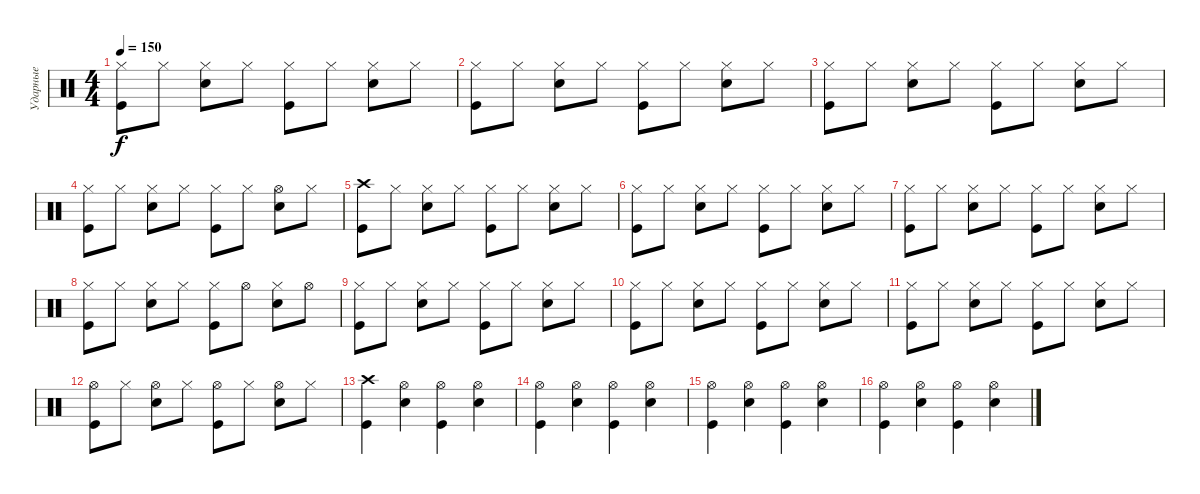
\track ("Ударные" "Ударные") {instrument percussion}
\staff {score}
\articulation defaults
\ts (4 4)
\tempo 150
\clef neutral
\ks c
("Hi-Hat (closed)" "Kick (hit)").8{dy f} "Hi-Hat (closed)".8 ("Hi-Hat (closed)" "Snare (hit) 2").8 "Hi-Hat (closed)".8 ("Hi-Hat (closed)" "Kick (hit)").8 "Hi-Hat (closed)".8 ("Hi-Hat (closed)" "Snare (hit) 2").8 "Hi-Hat (closed)".8 |
("Hi-Hat (closed)" "Kick (hit)").8 "Hi-Hat (closed)".8 ("Hi-Hat (closed)" "Snare (hit) 2").8 "Hi-Hat (closed)".8 ("Hi-Hat (closed)" "Kick (hit)").8 "Hi-Hat (closed)".8 ("Hi-Hat (closed)" "Snare (hit) 2").8 "Hi-Hat (closed)".8 |
("Hi-Hat (closed)" "Kick (hit)").8 "Hi-Hat (closed)".8 ("Hi-Hat (closed)" "Snare (hit) 2").8 "Hi-Hat (closed)".8 ("Hi-Hat (closed)" "Kick (hit)").8 "Hi-Hat (closed)".8 ("Hi-Hat (closed)" "Snare (hit) 2").8 "Hi-Hat (closed)".8 |
("Hi-Hat (closed)" "Kick (hit)").8 "Hi-Hat (closed)".8 ("Hi-Hat (closed)" "Snare (hit) 2").8 "Hi-Hat (closed)".8 ("Hi-Hat (closed)" "Kick (hit)").8 "Hi-Hat (closed)".8 ("Hi-Hat (open)" "Snare (hit) 2").8 "Hi-Hat (closed)".8 |
("Crash high (hit)" "Kick (hit)").8 "Hi-Hat (closed)".8 ("Hi-Hat (closed)" "Snare (hit) 2").8 "Hi-Hat (closed)".8 ("Hi-Hat (closed)" "Kick (hit)").8 "Hi-Hat (closed)".8 ("Hi-Hat (closed)" "Snare (hit) 2").8 "Hi-Hat (closed)".8 |
("Hi-Hat (closed)" "Kick (hit)").8 "Hi-Hat (closed)".8 ("Hi-Hat (closed)" "Snare (hit) 2").8 "Hi-Hat (closed)".8 ("Hi-Hat (closed)" "Kick (hit)").8 "Hi-Hat (closed)".8 ("Hi-Hat (closed)" "Snare (hit) 2").8 "Hi-Hat (closed)".8 |
("Hi-Hat (closed)" "Kick (hit)").8 "Hi-Hat (closed)".8 ("Hi-Hat (closed)" "Snare (hit) 2").8 "Hi-Hat (closed)".8 ("Hi-Hat (closed)" "Kick (hit)").8 "Hi-Hat (closed)".8 ("Hi-Hat (closed)" "Snare (hit) 2").8 "Hi-Hat (closed)".8 |
("Hi-Hat (closed)" "Kick (hit)").8 "Hi-Hat (closed)".8 ("Hi-Hat (closed)" "Snare (hit) 2").8 "Hi-Hat (closed)".8 ("Hi-Hat (closed)" "Kick (hit)").8 "Hi-Hat (open)".8 ("Hi-Hat (closed)" "Snare (hit) 2").8 "Hi-Hat (open)".8 |
("Hi-Hat (closed)" "Kick (hit)").8 "Hi-Hat (closed)".8 ("Hi-Hat (closed)" "Snare (hit) 2").8 "Hi-Hat (closed)".8 ("Hi-Hat (closed)" "Kick (hit)").8 "Hi-Hat (closed)".8 ("Hi-Hat (closed)" "Snare (hit) 2").8 "Hi-Hat (closed)".8 |
("Hi-Hat (closed)" "Kick (hit)").8 "Hi-Hat (closed)".8 ("Hi-Hat (closed)" "Snare (hit) 2").8 "Hi-Hat (closed)".8 ("Hi-Hat (closed)" "Kick (hit)").8 "Hi-Hat (closed)".8 ("Hi-Hat (closed)" "Snare (hit) 2").8 "Hi-Hat (closed)".8 |
("Hi-Hat (closed)" "Kick (hit)").8 "Hi-Hat (closed)".8 ("Hi-Hat (closed)" "Snare (hit) 2").8 "Hi-Hat (closed)".8 ("Hi-Hat (closed)" "Kick (hit)").8 "Hi-Hat (closed)".8 ("Hi-Hat (closed)" "Snare (hit) 2").8 "Hi-Hat (closed)".8 |
("Hi-Hat (open)" "Kick (hit)").8 "Hi-Hat (closed)".8 ("Hi-Hat (open)" "Snare (hit) 2").8 "Hi-Hat (closed)".8 ("Hi-Hat (open)" "Kick (hit)").8 "Hi-Hat (closed)".8 ("Hi-Hat (open)" "Snare (hit) 2").8 "Hi-Hat (closed)".8 |
("Crash high (hit)" "Kick (hit)").4 ("Hi-Hat (open)" "Snare (hit) 2").4 ("Hi-Hat (open)" "Kick (hit)").4 ("Hi-Hat (open)" "Snare (hit) 2").4 |
("Hi-Hat (open)" "Kick (hit)").4 ("Hi-Hat (open)" "Snare (hit) 2").4 ("Hi-Hat (open)" "Kick (hit)").4 ("Hi-Hat (open)" "Snare (hit) 2").4 |
("Hi-Hat (open)" "Kick (hit)").4 ("Hi-Hat (open)" "Snare (hit) 2").4 ("Hi-Hat (open)" "Kick (hit)").4 ("Hi-Hat (open)" "Snare (hit) 2").4 |
("Hi-Hat (open)" "Kick (hit)").4 ("Hi-Hat (open)" "Snare (hit) 2").4 ("Hi-Hat (open)" "Kick (hit)").4 ("Hi-Hat (open)" "Snare (hit) 2").4
